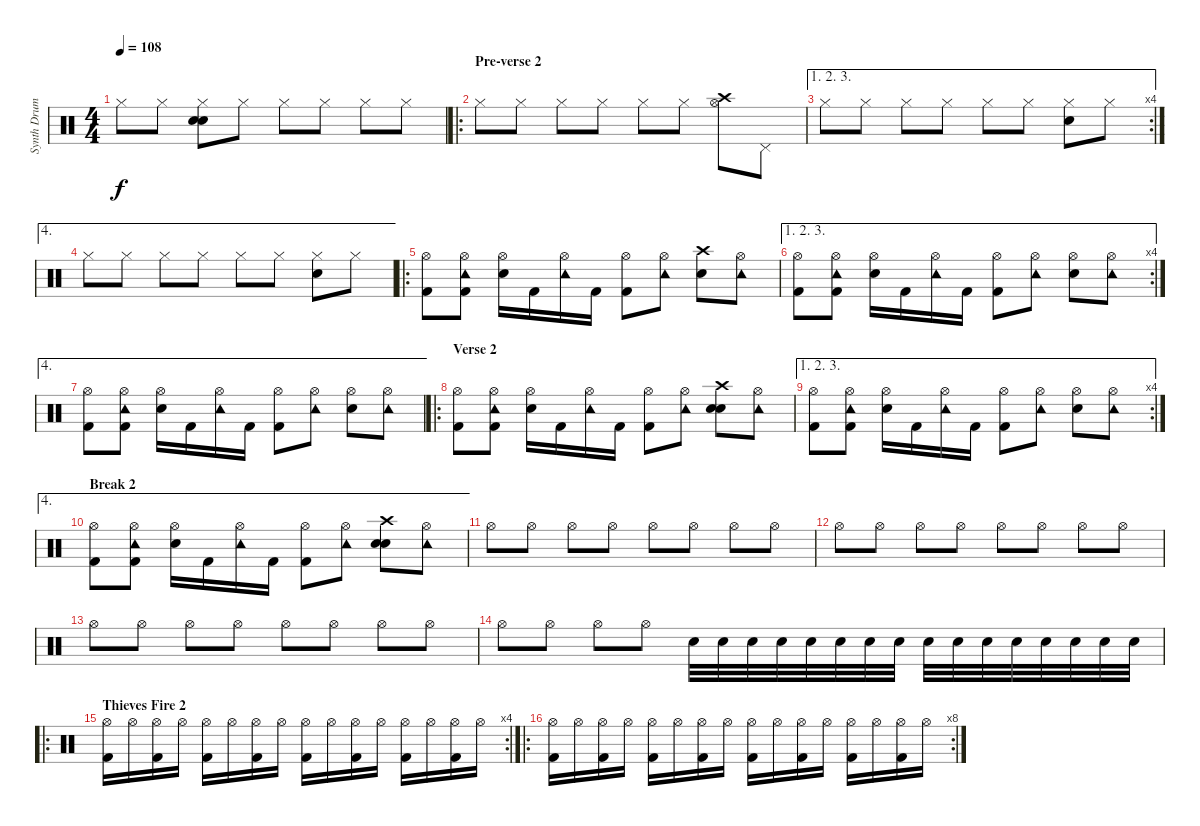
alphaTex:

\track ("Synth Drums && percs" "Synth Drum") {instrument percussion}
\staff {score}
\articulation defaults
\ts (4 4)
\tempo 108
\clef neutral
\ks c "Hi-Hat (closed)".8{dy f} "Hi-Hat (closed)".8
("Hi-Hat (closed)" "Hand Clap (hit)" "Snare (hit) 2").8 "Hi-Hat (closed)".8 "Hi-Hat (closed)".8 "Hi-Hat (closed)".8 "Hi-Hat (closed)".8 "Hi-Hat (closed)".8 |
\ro
\section ("" "Pre-verse 2")
"Hi-Hat (closed)".8 "Hi-Hat (closed)".8 "Hi-Hat (closed)".8 "Hi-Hat (closed)".8 "Hi-Hat (closed)".8 "Hi-Hat (closed)".8 ("Hi-Hat (open)" "Crash high (hit)").8 "Pedal Hi-Hat (hit)".8 |
\ae (1 2 3)
\rc 4 "Hi-Hat (closed)".8 "Hi-Hat (closed)".8 "Hi-Hat (closed)".8 "Hi-Hat (closed)".8 "Hi-Hat (closed)".8 "Hi-Hat (closed)".8
("Hi-Hat (closed)" "Snare (hit) 2").8 "Hi-Hat (closed)".8 |
\ae 4 "Hi-Hat (closed)".8 "Hi-Hat (closed)".8 "Hi-Hat (closed)".8 "Hi-Hat (closed)".8 "Hi-Hat (closed)".8 "Hi-Hat (closed)".8
("Hi-Hat (closed)" "Snare (hit) 2").8 "Hi-Hat (closed)".8 |
\ro
("Hi-Hat (open)" "Kick (hit) 2").8 ("Hi-Hat (open)" "Tambourine (hit)" "Kick (hit) 2").8 ("Hi-Hat (open)" "Snare (hit) 2").16 "Kick (hit) 2".16 ("Hi-Hat (open)" "Tambourine (hit)").16 "Kick (hit) 2".16 ("Hi-Hat (open)" "Kick (hit) 2").8 ("Hi-Hat (open)" "Tambourine (hit)").8 ("Crash high (hit)" "Snare (hit) 2").8 ("Hi-Hat (open)" "Tambourine (hit)").8 |
\ae (1 2 3)
\rc 4
("Hi-Hat (open)" "Kick (hit) 2").8 ("Hi-Hat (open)" "Tambourine (hit)" "Kick (hit) 2").8 ("Hi-Hat (open)" "Snare (hit) 2").16 "Kick (hit) 2".16 ("Hi-Hat (open)" "Tambourine (hit)").16 "Kick (hit) 2".16 ("Hi-Hat (open)" "Kick (hit) 2").8 ("Hi-Hat (open)" "Tambourine (hit)").8 ("Hi-Hat (open)" "Snare (hit) 2").8 ("Hi-Hat (open)" "Tambourine (hit)").8 |
\ae 4
("Hi-Hat (open)" "Kick (hit) 2").8 ("Hi-Hat (open)" "Tambourine (hit)" "Kick (hit) 2").8 ("Hi-Hat (open)" "Snare (hit) 2").16 "Kick (hit) 2".16 ("Hi-Hat (open)" "Tambourine (hit)").16 "Kick (hit) 2".16 ("Hi-Hat (open)" "Kick (hit) 2").8 ("Hi-Hat (open)" "Tambourine (hit)").8 ("Hi-Hat (open)" "Snare (hit) 2").8 ("Hi-Hat (open)" "Tambourine (hit)").8 |
\ro
\section ("" "Verse 2")
("Hi-Hat (open)" "Kick (hit) 2").8 ("Hi-Hat (open)" "Tambourine (hit)" "Kick (hit) 2").8 ("Hi-Hat (open)" "Snare (hit) 2").16 "Kick (hit) 2".16 ("Hi-Hat (open)" "Tambourine (hit)").16 "Kick (hit) 2".16 ("Hi-Hat (open)" "Kick (hit) 2").8 ("Hi-Hat (open)" "Tambourine (hit)").8 ("Crash high (hit)" "Hand Clap (hit)" "Snare (hit) 2").8 ("Hi-Hat (open)" "Tambourine (hit)").8 |
\ae (1 2 3)
\rc 4
("Hi-Hat (open)" "Kick (hit) 2").8 ("Hi-Hat (open)" "Tambourine (hit)" "Kick (hit) 2").8 ("Hi-Hat (open)" "Snare (hit) 2").16 "Kick (hit) 2".16 ("Hi-Hat (open)" "Tambourine (hit)").16 "Kick (hit) 2".16 ("Hi-Hat (open)" "Kick (hit) 2").8 ("Hi-Hat (open)" "Tambourine (hit)").8 ("Hi-Hat (open)" "Snare (hit) 2").8 ("Hi-Hat (open)" "Tambourine (hit)").8 |
\ae 4
\section ("" "Break 2")
("Hi-Hat (open)" "Kick (hit) 2").8 ("Hi-Hat (open)" "Tambourine (hit)" "Kick (hit) 2").8 ("Hi-Hat (open)" "Snare (hit) 2").16 "Kick (hit) 2".16 ("Hi-Hat (open)" "Tambourine (hit)").16 "Kick (hit) 2".16 ("Hi-Hat (open)" "Kick (hit) 2").8 ("Hi-Hat (open)" "Tambourine (hit)").8 ("Crash high (hit)" "Hand Clap (hit)" "Snare (hit) 2").8 ("Hi-Hat (open)" "Tambourine (hit)").8 |
"Hi-Hat (open)".8 "Hi-Hat (open)".8 "Hi-Hat (open)".8 "Hi-Hat (open)".8 "Hi-Hat (open)".8 "Hi-Hat (open)".8 "Hi-Hat (open)".8 "Hi-Hat (open)".8 |
"Hi-Hat (open)".8 "Hi-Hat (open)".8 "Hi-Hat (open)".8 "Hi-Hat (open)".8 "Hi-Hat (open)".8 "Hi-Hat (open)".8 "Hi-Hat (open)".8 "Hi-Hat (open)".8 |
"Hi-Hat (open)".8 "Hi-Hat (open)".8 "Hi-Hat (open)".8 "Hi-Hat (open)".8 "Hi-Hat (open)".8 "Hi-Hat (open)".8 "Hi-Hat (open)".8 "Hi-Hat (open)".8 |
"Hi-Hat (open)".8 "Hi-Hat (open)".8 "Hi-Hat (open)".8 "Hi-Hat (open)".8 "Snare (hit) 2".32 "Snare (hit) 2".32 "Snare (hit) 2".32 "Snare (hit) 2".32 "Snare (hit) 2".32 "Snare (hit) 2".32 "Snare (hit) 2".32 "Snare (hit) 2".32 "Snare (hit) 2".32 "Snare (hit) 2".32 "Snare (hit) 2".32 "Snare (hit) 2".32 "Snare (hit) 2".32 "Snare (hit) 2".32 "Snare (hit) 2".32 "Snare (hit) 2".32 |
\ro
\rc 4
\section ("" "Thieves Fire 2")
("Hi-Hat (open)" "Kick (hit) 2").16 "Hi-Hat (open)".16 ("Hi-Hat (open)" "Kick (hit) 2").16 "Hi-Hat (open)".16 ("Hi-Hat (open)" "Kick (hit) 2").16 "Hi-Hat (open)".16 ("Hi-Hat (open)" "Kick (hit) 2").16 "Hi-Hat (open)".16 ("Hi-Hat (open)" "Kick (hit) 2").16 "Hi-Hat (open)".16 ("Hi-Hat (open)" "Kick (hit) 2").16 "Hi-Hat (open)".16 ("Hi-Hat (open)" "Kick (hit) 2").16 "Hi-Hat (open)".16 ("Hi-Hat (open)" "Kick (hit) 2").16 "Hi-Hat (open)".16 |
\ro
\rc 8
("Hi-Hat (open)" "Kick (hit) 2").16 "Hi-Hat (open)".16 ("Hi-Hat (open)" "Kick (hit) 2").16 "Hi-Hat (open)".16 ("Hi-Hat (open)" "Kick (hit) 2").16 "Hi-Hat (open)".16 ("Hi-Hat (open)" "Kick (hit) 2").16 "Hi-Hat (open)".16 ("Hi-Hat (open)" "Kick (hit) 2").16 "Hi-Hat (open)".16 ("Hi-Hat (open)" "Kick (hit) 2").16 "Hi-Hat (open)".16 ("Hi-Hat (open)" "Kick (hit) 2").16 "Hi-Hat (open)".16 ("Hi-Hat (open)" "Kick (hit) 2").16 "Hi-Hat (open)".16
